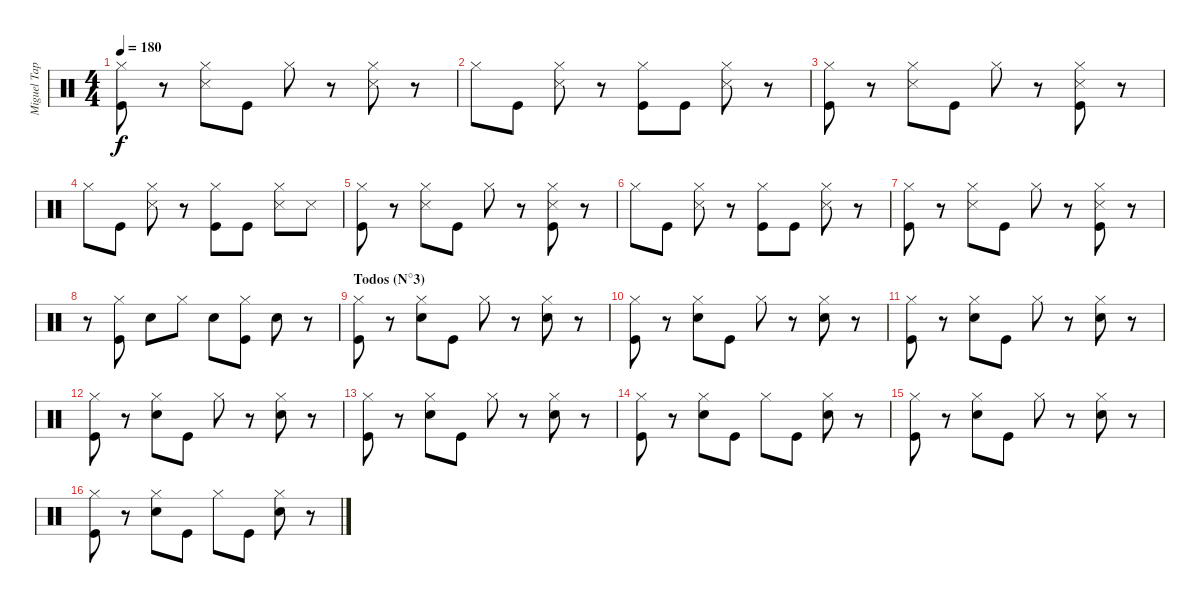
\track ("Miguel Tapia (Batería)" "Miguel Tap") {instrument percussion}
\staff {score}
\articulation defaults
\ts (4 4)
\tempo 180
\clef neutral
\ks c
("Hi-Hat (closed)" "Kick (hit)").8{dy f} r.8 ("Hi-Hat (closed)" "Snare (side stick) 3").8 "Kick (hit)".8 "Hi-Hat (closed)".8 r.8 ("Hi-Hat (closed)" "Snare (side stick) 3").8 r.8 |
"Hi-Hat (closed)".8 "Kick (hit)".8 ("Hi-Hat (closed)" "Snare (side stick) 3").8 r.8 ("Hi-Hat (closed)" "Kick (hit)").8 "Kick (hit)".8 ("Hi-Hat (closed)" "Snare (side stick) 3").8 r.8 |
("Hi-Hat (closed)" "Kick (hit)").8 r.8 ("Hi-Hat (closed)" "Snare (side stick) 3").8 "Kick (hit)".8 "Hi-Hat (closed)".8 r.8 ("Hi-Hat (closed)" "Snare (side stick) 3" "Kick (hit)").8 r.8 |
"Hi-Hat (closed)".8 "Kick (hit)".8 ("Hi-Hat (closed)" "Snare (side stick) 3").8 r.8 ("Hi-Hat (closed)" "Kick (hit)").8 "Kick (hit)".8 ("Hi-Hat (closed)" "Snare (side stick) 3").8 "Snare (side stick) 3".8 |
("Hi-Hat (closed)" "Kick (hit)").8 r.8 ("Hi-Hat (closed)" "Snare (side stick) 3").8 "Kick (hit)".8 "Hi-Hat (closed)".8 r.8 ("Hi-Hat (closed)" "Snare (side stick) 3" "Kick (hit)").8 r.8 |
"Hi-Hat (closed)".8 "Kick (hit)".8 ("Hi-Hat (closed)" "Snare (side stick) 3").8 r.8 ("Hi-Hat (closed)" "Kick (hit)").8 "Kick (hit)".8 ("Hi-Hat (closed)" "Snare (side stick) 3").8 r.8 |
("Hi-Hat (closed)" "Kick (hit)").8 r.8 ("Hi-Hat (closed)" "Snare (side stick) 3").8 "Kick (hit)".8 "Hi-Hat (closed)".8 r.8 ("Hi-Hat (closed)" "Snare (side stick) 3" "Kick (hit)").8 r.8 |
r.8 ("Hi-Hat (closed)" "Kick (hit)").8 "Snare (hit) 2".8 "Hi-Hat (closed)".8 "Snare (hit) 2".8 ("Hi-Hat (closed)" "Kick (hit)").8 "Snare (hit) 2".8 r.8 |
\section ("" "Todos (N°3)")
("Hi-Hat (closed)" "Kick (hit)").8 r.8 ("Hi-Hat (closed)" "Snare (hit) 2").8 "Kick (hit)".8 "Hi-Hat (closed)".8 r.8 ("Hi-Hat (closed)" "Snare (hit) 2").8 r.8 |
("Hi-Hat (closed)" "Kick (hit)").8 r.8 ("Hi-Hat (closed)" "Snare (hit) 2").8 "Kick (hit)".8 "Hi-Hat (closed)".8 r.8 ("Hi-Hat (closed)" "Snare (hit) 2").8 r.8 |
("Hi-Hat (closed)" "Kick (hit)").8 r.8 ("Hi-Hat (closed)" "Snare (hit) 2").8 "Kick (hit)".8 "Hi-Hat (closed)".8 r.8 ("Hi-Hat (closed)" "Snare (hit) 2").8 r.8 |
("Hi-Hat (closed)" "Kick (hit)").8 r.8 ("Hi-Hat (closed)" "Snare (hit) 2").8 "Kick (hit)".8 "Hi-Hat (closed)".8 r.8 ("Hi-Hat (closed)" "Snare (hit) 2").8 r.8 |
("Hi-Hat (closed)" "Kick (hit)").8 r.8 ("Hi-Hat (closed)" "Snare (hit) 2").8 "Kick (hit)".8 "Hi-Hat (closed)".8 r.8 ("Hi-Hat (closed)" "Snare (hit) 2").8 r.8 |
("Hi-Hat (closed)" "Kick (hit)").8 r.8 ("Hi-Hat (closed)" "Snare (hit) 2").8 "Kick (hit)".8 "Hi-Hat (closed)".8 "Kick (hit)".8 ("Hi-Hat (closed)" "Snare (hit) 2").8 r.8 |
("Hi-Hat (closed)" "Kick (hit)").8 r.8 ("Hi-Hat (closed)" "Snare (hit) 2").8 "Kick (hit)".8 "Hi-Hat (closed)".8 r.8 ("Hi-Hat (closed)" "Snare (hit) 2").8 r.8 |
("Hi-Hat (closed)" "Kick (hit)").8 r.8 ("Hi-Hat (closed)" "Snare (hit) 2").8 "Kick (hit)".8 "Hi-Hat (closed)".8 "Kick (hit)".8 ("Hi-Hat (closed)" "Snare (hit) 2").8 r.8
